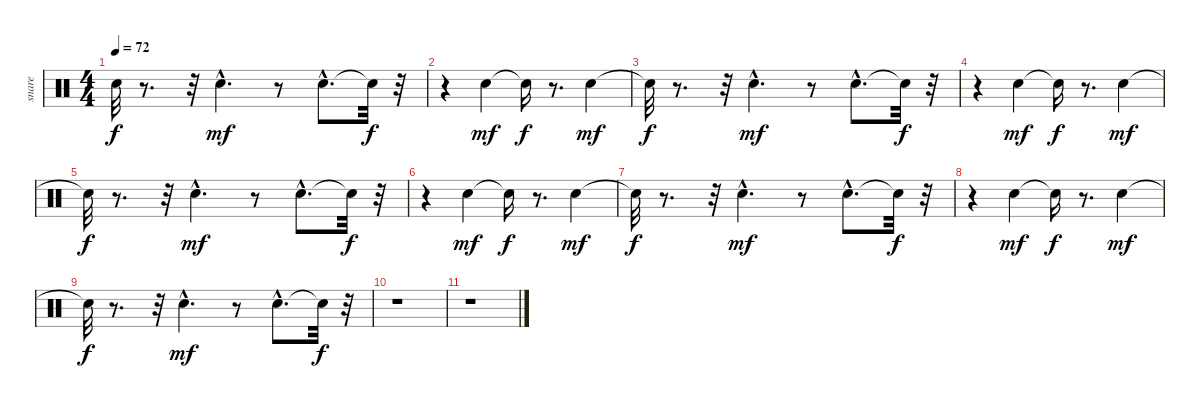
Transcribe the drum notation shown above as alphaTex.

\track ("snare" "snare") {instrument percussion}
\staff {score}
\articulation defaults
\ts (4 4)
\tempo 72
\clef neutral
\ks c "Snare (hit)"{t}.32{dy f}
r.8{d} r.32 "Snare (hit) 2"{hac}.4{d dy mf} r.8 "Snare (hit) 2"{hac}.8{d} "Snare (hit)"{t}.32{dy f} r.32 |
r.4 "Snare (hit) 2".4{dy mf} "Snare (hit)"{t}.16{dy f} r.8{d} "Snare (hit) 2".4{dy mf} |
"Snare (hit)"{t}.32{dy f} r.8{d} r.32 "Snare (hit) 2"{hac}.4{d dy mf} r.8 "Snare (hit) 2"{hac}.8{d} "Snare (hit)"{t}.32{dy f} r.32 |
r.4 "Snare (hit) 2".4{dy mf} "Snare (hit)"{t}.16{dy f} r.8{d} "Snare (hit) 2".4{dy mf} |
"Snare (hit)"{t}.32{dy f} r.8{d} r.32 "Snare (hit) 2"{hac}.4{d dy mf} r.8 "Snare (hit) 2"{hac}.8{d} "Snare (hit)"{t}.32{dy f} r.32 |
r.4 "Snare (hit) 2".4{dy mf} "Snare (hit)"{t}.16{dy f} r.8{d} "Snare (hit) 2".4{dy mf} |
"Snare (hit)"{t}.32{dy f} r.8{d} r.32 "Snare (hit) 2"{hac}.4{d dy mf} r.8 "Snare (hit) 2"{hac}.8{d} "Snare (hit)"{t}.32{dy f} r.32 |
r.4 "Snare (hit) 2".4{dy mf} "Snare (hit)"{t}.16{dy f} r.8{d} "Snare (hit) 2".4{dy mf} |
"Snare (hit)"{t}.32{dy f} r.8{d} r.32 "Snare (hit) 2"{hac}.4{d dy mf} r.8 "Snare (hit) 2"{hac}.8{d} "Snare (hit)"{t}.32{dy f} r.32 |
r.1 |
r.1
